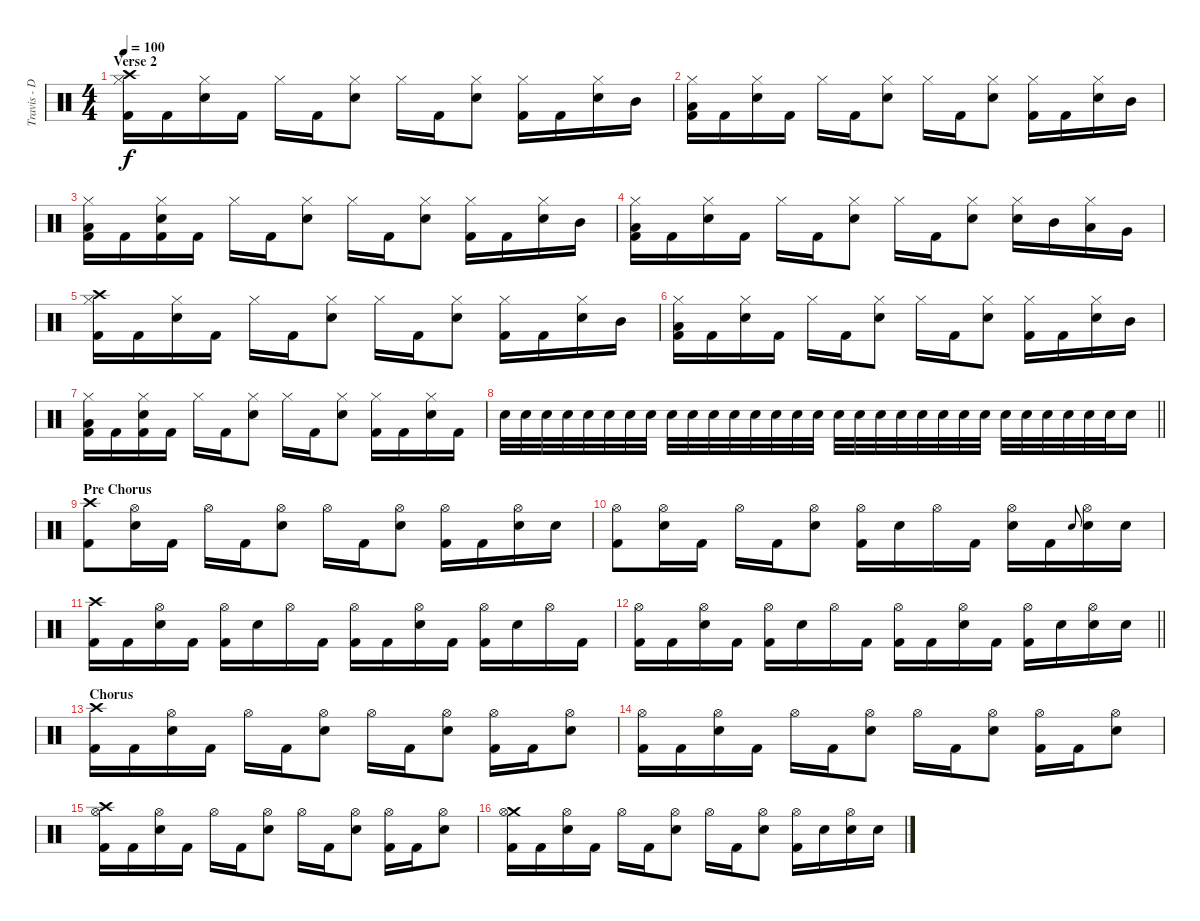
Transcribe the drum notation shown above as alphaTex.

\track ("Travis - Drums" "Travis - D") {instrument percussion}
\staff {score}
\articulation defaults
\ts (4 4)
\section ("" "Verse 2")
\tempo 100
\clef neutral
\ks c
("Crash high (hit)" "Hi-Hat (closed)" "Kick (hit) 2").16{dy f} "Kick (hit) 2".16 ("Hi-Hat (closed)" "Electric Snare (hit)").16 "Kick (hit) 2".16 "Hi-Hat (closed)".16 "Kick (hit) 2".16 ("Hi-Hat (closed)" "Electric Snare (hit)").8 "Hi-Hat (closed)".16 "Kick (hit) 2".16 ("Hi-Hat (closed)" "Electric Snare (hit)").8 ("Hi-Hat (closed)" "Kick (hit) 2").16 "Kick (hit) 2".16 ("Hi-Hat (closed)" "Electric Snare (hit)").16 "Mid Tom (hit)".16 |
("Hi-Hat (closed)" "Low Tom (hit)" "Kick (hit) 2").16 "Kick (hit) 2".16 ("Hi-Hat (closed)" "Electric Snare (hit)").16 "Kick (hit) 2".16 "Hi-Hat (closed)".16 "Kick (hit) 2".16 ("Hi-Hat (closed)" "Electric Snare (hit)").8 "Hi-Hat (closed)".16 "Kick (hit) 2".16 ("Hi-Hat (closed)" "Electric Snare (hit)").8 ("Hi-Hat (closed)" "Kick (hit) 2").16 "Kick (hit) 2".16 ("Hi-Hat (closed)" "Electric Snare (hit)").16 "Mid Tom (hit)".16 |
("Hi-Hat (closed)" "Low Tom (hit)" "Kick (hit) 2").16 "Kick (hit) 2".16 ("Hi-Hat (closed)" "Electric Snare (hit)" "Kick (hit) 2").16 "Kick (hit) 2".16 "Hi-Hat (closed)".16 "Kick (hit) 2".16 ("Hi-Hat (closed)" "Electric Snare (hit)").8 "Hi-Hat (closed)".16 "Kick (hit) 2".16 ("Hi-Hat (closed)" "Electric Snare (hit)").8 ("Hi-Hat (closed)" "Kick (hit) 2").16 "Kick (hit) 2".16 ("Hi-Hat (closed)" "Electric Snare (hit)").16 "Mid Tom (hit)".16 |
("Hi-Hat (closed)" "Low Tom (hit)" "Kick (hit) 2").16 "Kick (hit) 2".16 ("Hi-Hat (closed)" "Electric Snare (hit)").16 "Kick (hit) 2".16 "Hi-Hat (closed)".16 "Kick (hit) 2".16 ("Hi-Hat (closed)" "Electric Snare (hit)").8 "Hi-Hat (closed)".16 "Kick (hit) 2".16 ("Hi-Hat (closed)" "Electric Snare (hit)").8 ("Hi-Hat (closed)" "Electric Snare (hit)").16 "Mid Tom (hit)".16 ("Hi-Hat (closed)" "Low Tom (hit)").16 "Very Low Tom (hit)".16 |
("Crash high (hit)" "Hi-Hat (closed)" "Kick (hit) 2").16 "Kick (hit) 2".16 ("Hi-Hat (closed)" "Electric Snare (hit)").16 "Kick (hit) 2".16 "Hi-Hat (closed)".16 "Kick (hit) 2".16 ("Hi-Hat (closed)" "Electric Snare (hit)").8 "Hi-Hat (closed)".16 "Kick (hit) 2".16 ("Hi-Hat (closed)" "Electric Snare (hit)").8 ("Hi-Hat (closed)" "Kick (hit) 2").16 "Kick (hit) 2".16 ("Hi-Hat (closed)" "Electric Snare (hit)").16 "Mid Tom (hit)".16 |
("Hi-Hat (closed)" "Low Tom (hit)" "Kick (hit) 2").16 "Kick (hit) 2".16 ("Hi-Hat (closed)" "Electric Snare (hit)").16 "Kick (hit) 2".16 "Hi-Hat (closed)".16 "Kick (hit) 2".16 ("Hi-Hat (closed)" "Electric Snare (hit)").8 "Hi-Hat (closed)".16 "Kick (hit) 2".16 ("Hi-Hat (closed)" "Electric Snare (hit)").8 ("Hi-Hat (closed)" "Kick (hit) 2").16 "Kick (hit) 2".16 ("Hi-Hat (closed)" "Electric Snare (hit)").16 "Mid Tom (hit)".16 |
("Hi-Hat (closed)" "Low Tom (hit)" "Kick (hit) 2").16 "Kick (hit) 2".16 ("Hi-Hat (closed)" "Electric Snare (hit)" "Kick (hit) 2").16 "Kick (hit) 2".16 "Hi-Hat (closed)".16 "Kick (hit) 2".16 ("Hi-Hat (closed)" "Electric Snare (hit)").8 "Hi-Hat (closed)".16 "Kick (hit) 2".16 ("Hi-Hat (closed)" "Electric Snare (hit)").8 ("Hi-Hat (closed)" "Kick (hit) 2").16 "Kick (hit) 2".16 ("Hi-Hat (closed)" "Electric Snare (hit)").16 "Kick (hit) 2".16 |
\barLineRight lightlight "Electric Snare (hit)".32 "Electric Snare (hit)".32 "Electric Snare (hit)".32 "Electric Snare (hit)".32 "Electric Snare (hit)".32 "Electric Snare (hit)".32 "Electric Snare (hit)".32 "Electric Snare (hit)".32 "Electric Snare (hit)".32 "Electric Snare (hit)".32 "Electric Snare (hit)".32 "Electric Snare (hit)".32 "Electric Snare (hit)".32 "Electric Snare (hit)".32 "Electric Snare (hit)".32 "Electric Snare (hit)".32 "Electric Snare (hit)".32 "Electric Snare (hit)".32 "Electric Snare (hit)".32 "Electric Snare (hit)".32 "Electric Snare (hit)".32 "Electric Snare (hit)".32 "Electric Snare (hit)".32 "Electric Snare (hit)".32 "Electric Snare (hit)".32 "Electric Snare (hit)".32 "Electric Snare (hit)".32 "Electric Snare (hit)".32 "Electric Snare (hit)".32 "Electric Snare (hit)".32 "Electric Snare (hit)".16
|
\section ("" "Pre Chorus")
("Crash high (hit)" "Kick (hit) 2").8 ("Hi-Hat (open)" "Electric Snare (hit)").16 "Kick (hit) 2".16 "Hi-Hat (open)".16 "Kick (hit) 2".16 ("Hi-Hat (open)" "Electric Snare (hit)").8 "Hi-Hat (open)".16 "Kick (hit) 2".16 ("Hi-Hat (open)" "Electric Snare (hit)").8 ("Hi-Hat (open)" "Kick (hit) 2").16 "Kick (hit) 2".16 ("Hi-Hat (open)" "Electric Snare (hit)").16 "Electric Snare (hit)".16 |
("Hi-Hat (open)" "Kick (hit) 2").8 ("Hi-Hat (open)" "Electric Snare (hit)").16 "Kick (hit) 2".16 "Hi-Hat (open)".16 "Kick (hit) 2".16 ("Hi-Hat (open)" "Electric Snare (hit)").8 ("Hi-Hat (open)" "Kick (hit) 2").16 "Electric Snare (hit)".16 "Hi-Hat (open)".16 "Kick (hit) 2".16 ("Hi-Hat (open)" "Electric Snare (hit)").16 "Kick (hit) 2".16 "Electric Snare (hit)".8{gr onbeat} ("Hi-Hat (open)" "Electric Snare (hit)").16 "Electric Snare (hit)".16 |
("Crash high (hit)" "Kick (hit) 2").16 "Kick (hit) 2".16 ("Hi-Hat (open)" "Electric Snare (hit)").16 "Kick (hit) 2".16 ("Hi-Hat (open)" "Kick (hit) 2").16 "Electric Snare (hit)".16 "Hi-Hat (open)".16 "Kick (hit) 2".16 ("Hi-Hat (open)" "Kick (hit) 2").16 "Kick (hit) 2".16 ("Hi-Hat (open)" "Electric Snare (hit)").16 "Kick (hit) 2".16 ("Hi-Hat (open)" "Kick (hit) 2").16 "Electric Snare (hit)".16 "Hi-Hat (open)".16 "Kick (hit) 2".16 |
\barLineRight lightlight
("Hi-Hat (open)" "Kick (hit) 2").16 "Kick (hit) 2".16 ("Hi-Hat (open)" "Electric Snare (hit)").16 "Kick (hit) 2".16 ("Hi-Hat (open)" "Kick (hit) 2").16 "Electric Snare (hit)".16 "Hi-Hat (open)".16 "Kick (hit) 2".16 ("Hi-Hat (open)" "Kick (hit) 2").16 "Kick (hit) 2".16 ("Hi-Hat (open)" "Electric Snare (hit)").16 "Kick (hit) 2".16 ("Hi-Hat (open)" "Kick (hit) 2").16 "Electric Snare (hit)".16 ("Hi-Hat (open)" "Electric Snare (hit)").16 "Electric Snare (hit)".16 |
\section ("" "Chorus")
("Crash high (hit)" "Kick (hit) 2").16 "Kick (hit) 2".16 ("Hi-Hat (open)" "Electric Snare (hit)").16 "Kick (hit) 2".16 "Hi-Hat (open)".16 "Kick (hit) 2".16 ("Hi-Hat (open)" "Electric Snare (hit)").8 "Hi-Hat (open)".16 "Kick (hit) 2".16 ("Hi-Hat (open)" "Electric Snare (hit)").8 ("Hi-Hat (open)" "Kick (hit) 2").16 "Kick (hit) 2".16 ("Hi-Hat (open)" "Electric Snare (hit)").8 |
("Hi-Hat (open)" "Kick (hit) 2").16 "Kick (hit) 2".16 ("Hi-Hat (open)" "Electric Snare (hit)").16 "Kick (hit) 2".16 "Hi-Hat (open)".16 "Kick (hit) 2".16 ("Hi-Hat (open)" "Electric Snare (hit)").8 "Hi-Hat (open)".16 "Kick (hit) 2".16 ("Hi-Hat (open)" "Electric Snare (hit)").8 ("Hi-Hat (open)" "Kick (hit) 2").16 "Kick (hit) 2".16 ("Hi-Hat (open)" "Electric Snare (hit)").8 |
("Crash high (hit)" "Hi-Hat (open)" "Kick (hit) 2").16 "Kick (hit) 2".16 ("Hi-Hat (open)" "Electric Snare (hit)").16 "Kick (hit) 2".16 "Hi-Hat (open)".16 "Kick (hit) 2".16 ("Hi-Hat (open)" "Electric Snare (hit)").8 "Hi-Hat (open)".16 "Kick (hit) 2".16 ("Hi-Hat (open)" "Electric Snare (hit)").8 ("Hi-Hat (open)" "Kick (hit) 2").16 "Kick (hit) 2".16 ("Hi-Hat (open)" "Electric Snare (hit)").8 |
("Crash medium (hit)" "Hi-Hat (open)" "Kick (hit) 2").16 "Kick (hit) 2".16 ("Hi-Hat (open)" "Electric Snare (hit)").16 "Kick (hit) 2".16 "Hi-Hat (open)".16 "Kick (hit) 2".16 ("Hi-Hat (open)" "Electric Snare (hit)").8 "Hi-Hat (open)".16 "Kick (hit) 2".16 ("Hi-Hat (open)" "Electric Snare (hit)").8 ("Hi-Hat (open)" "Kick (hit) 2").16 "Electric Snare (hit)".16 ("Hi-Hat (open)" "Electric Snare (hit)").16 "Electric Snare (hit)".16
